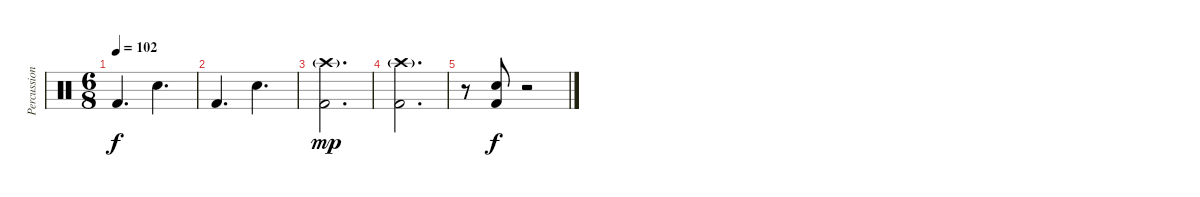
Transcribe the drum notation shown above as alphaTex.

\track ("Percussion" "Percussion") {instrument percussion}
\staff {score}
\articulation defaults
\ts (6 8)
\tempo 102
\clef neutral
\ks c "Kick (hit) 2".4{d dy f} "Snare (hit) 2".4{d}
|
"Kick (hit) 2".4{d} "Snare (hit) 2".4{d} |
("Crash high (hit)"{g} "Kick (hit) 2").2{d dy mp} |
("Crash high (hit)"{g} "Kick (hit) 2").2{d} |
r.8 ("Snare (hit) 2" "Kick (hit) 2").8{dy f} r.2
